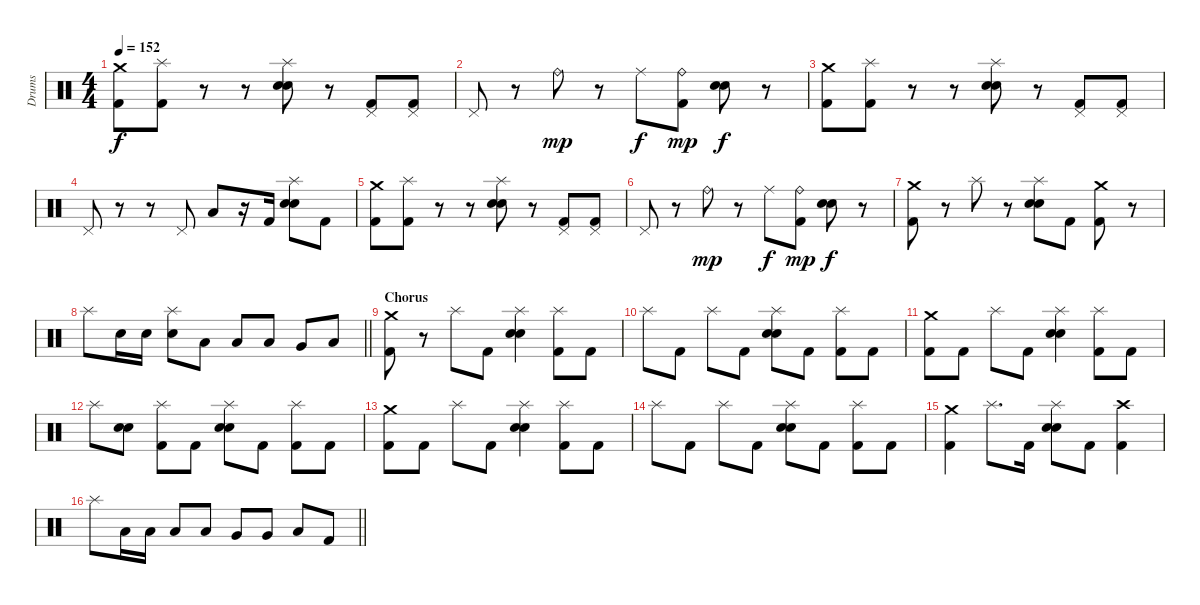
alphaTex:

\track ("Drums" "Drums") {instrument percussion}
\staff {score}
\articulation defaults
\ts (4 4)
\tempo 152
\clef neutral
\ks c
("Crash medium (hit)" "Kick (hit) 2").8{dy f} ("Splash (hit)" "Kick (hit) 2").8 r.8 r.8 ("Splash (hit)" "Electric Snare (hit)" "Snare (hit) 2").8 r.8 ("Pedal Hi-Hat (hit)" "Kick (hit) 2").8 ("Pedal Hi-Hat (hit)" "Kick (hit) 2").8 |
"Pedal Hi-Hat (hit)".8 r.8 "Ride (bell)".8{dy mp} r.8 "Ride (middle)".8{dy f} ("Ride (bell)" "Kick (hit) 2").8{dy mp} ("Electric Snare (hit)" "Snare (hit) 2").8{dy f} r.8 |
("Crash medium (hit)" "Kick (hit) 2").8 ("Splash (hit)" "Kick (hit) 2").8 r.8 r.8 ("Splash (hit)" "Electric Snare (hit)" "Snare (hit) 2").8 r.8 ("Pedal Hi-Hat (hit)" "Kick (hit) 2").8 ("Pedal Hi-Hat (hit)" "Kick (hit) 2").8 |
"Pedal Hi-Hat (hit)".8 r.8 r.8 "Pedal Hi-Hat (hit)".8 "Low Tom (hit)".8 r.16 "Kick (hit) 2".16 ("Splash (hit)" "Electric Snare (hit)" "Snare (hit) 2").8 "Kick (hit) 2".8 |
("Crash medium (hit)" "Kick (hit) 2").8 ("Splash (hit)" "Kick (hit) 2").8 r.8 r.8 ("Splash (hit)" "Electric Snare (hit)" "Snare (hit) 2").8 r.8 ("Pedal Hi-Hat (hit)" "Kick (hit) 2").8 ("Pedal Hi-Hat (hit)" "Kick (hit) 2").8 |
"Pedal Hi-Hat (hit)".8 r.8 "Ride (bell)".8{dy mp} r.8 "Ride (middle)".8{dy f} ("Ride (bell)" "Kick (hit) 2").8{dy mp} ("Electric Snare (hit)" "Snare (hit) 2").8{dy f} r.8 |
("Crash medium (hit)" "Kick (hit) 2").8 r.8 "Splash (hit)".8 r.8 ("Splash (hit)" "Electric Snare (hit)" "Snare (hit) 2").8 "Kick (hit) 2".8 ("Crash medium (hit)" "Kick (hit) 2").8 r.8 |
\barLineRight lightlight "Splash (hit)".8 "Electric Snare (hit)".16 "Electric Snare (hit)".16
("Splash (hit)" "Electric Snare (hit)").8 "Low Tom (hit)".8 "Low Tom (hit)".8 "Low Tom (hit)".8 "Very Low Tom (hit)".8 "Low Floor Tom (hit)".8 |
\section ("" "Chorus")
("Crash medium (hit)" "Kick (hit) 2").8 r.8 "Splash (hit)".8 "Kick (hit) 2".8 ("Splash (hit)" "Electric Snare (hit)" "Snare (hit) 2").4 ("Splash (hit)" "Kick (hit) 2").8 "Kick (hit) 2".8 |
"Splash (hit)".8 "Kick (hit) 2".8 "Splash (hit)".8 "Kick (hit) 2".8 ("Splash (hit)" "Electric Snare (hit)" "Snare (hit) 2").8 "Kick (hit) 2".8 ("Splash (hit)" "Kick (hit) 2").8 "Kick (hit) 2".8 |
("Crash medium (hit)" "Kick (hit) 2").8 "Kick (hit) 2".8 "Splash (hit)".8 "Kick (hit) 2".8 ("Splash (hit)" "Electric Snare (hit)" "Snare (hit) 2").4 ("Splash (hit)" "Kick (hit) 2").8 "Kick (hit) 2".8 |
"Splash (hit)".8 ("Electric Snare (hit)" "Snare (hit) 2").8 ("Splash (hit)" "Kick (hit) 2").8 "Kick (hit) 2".8 ("Splash (hit)" "Electric Snare (hit)" "Snare (hit) 2").8 "Kick (hit) 2".8 ("Splash (hit)" "Kick (hit) 2").8 "Kick (hit) 2".8 |
("Crash medium (hit)" "Kick (hit) 2").8 "Kick (hit) 2".8 "Splash (hit)".8 "Kick (hit) 2".8 ("Splash (hit)" "Electric Snare (hit)" "Snare (hit) 2").4 ("Splash (hit)" "Kick (hit) 2").8 "Kick (hit) 2".8 |
"Splash (hit)".8 "Kick (hit) 2".8 "Splash (hit)".8 "Kick (hit) 2".8 ("Splash (hit)" "Electric Snare (hit)" "Snare (hit) 2").8 "Kick (hit) 2".8 ("Splash (hit)" "Kick (hit) 2").8 "Kick (hit) 2".8 |
("Crash medium (hit)" "Kick (hit) 2").4 "Splash (hit)".8{d} "Kick (hit) 2".16 ("Splash (hit)" "Electric Snare (hit)" "Snare (hit) 2").8 "Kick (hit) 2".8 ("Crash high (hit)" "Kick (hit) 2").4 |
\barLineRight lightlight "Splash (hit)".8 "Low Tom (hit)".16 "Low Tom (hit)".16 "Low Tom (hit)".8 "Low Tom (hit)".8 "Very Low Tom (hit)".8 "Very Low Tom (hit)".8 "Low Floor Tom (hit)".8 "Kick (hit) 2".8
